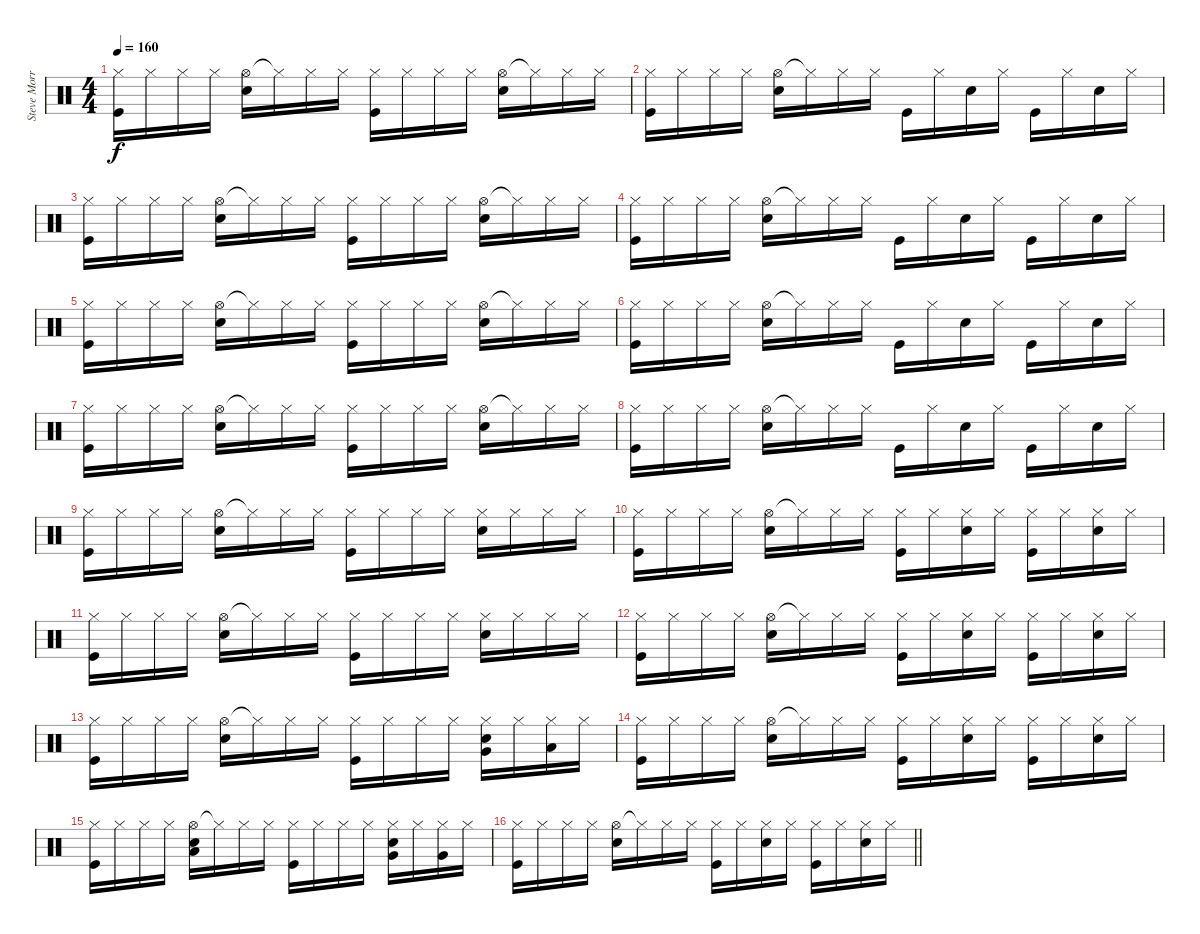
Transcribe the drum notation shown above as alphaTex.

\track ("Steve Morris" "Steve Morr") {instrument percussion}
\staff {score}
\articulation defaults
\ts (4 4)
\tempo 160
\clef neutral
\ks c
("Hi-Hat (closed)" "Kick (hit)").16{dy f} "Hi-Hat (closed)".16 "Hi-Hat (closed)".16 "Hi-Hat (closed)".16 ("Hi-Hat (open)" "Electric Snare (hit)").16 "Hi-Hat (closed)"{t}.16 "Hi-Hat (closed)".16 "Hi-Hat (closed)".16 ("Hi-Hat (closed)" "Kick (hit)").16 "Hi-Hat (closed)".16 "Hi-Hat (closed)".16 "Hi-Hat (closed)".16 ("Hi-Hat (open)" "Electric Snare (hit)").16 "Hi-Hat (closed)"{t}.16 "Hi-Hat (closed)".16 "Hi-Hat (closed)".16 |
("Hi-Hat (closed)" "Kick (hit)").16 "Hi-Hat (closed)".16 "Hi-Hat (closed)".16 "Hi-Hat (closed)".16 ("Hi-Hat (open)" "Electric Snare (hit)").16 "Hi-Hat (closed)"{t}.16 "Hi-Hat (closed)".16 "Hi-Hat (closed)".16 "Kick (hit)".16 "Hi-Hat (closed)".16 "Electric Snare (hit)".16 "Hi-Hat (closed)".16 "Kick (hit)".16 "Hi-Hat (closed)".16 "Electric Snare (hit)".16 "Hi-Hat (closed)".16 |
("Hi-Hat (closed)" "Kick (hit)").16 "Hi-Hat (closed)".16 "Hi-Hat (closed)".16 "Hi-Hat (closed)".16 ("Hi-Hat (open)" "Electric Snare (hit)").16 "Hi-Hat (closed)"{t}.16 "Hi-Hat (closed)".16 "Hi-Hat (closed)".16 ("Hi-Hat (closed)" "Kick (hit)").16 "Hi-Hat (closed)".16 "Hi-Hat (closed)".16 "Hi-Hat (closed)".16 ("Hi-Hat (open)" "Electric Snare (hit)").16 "Hi-Hat (closed)"{t}.16 "Hi-Hat (closed)".16 "Hi-Hat (closed)".16 |
("Hi-Hat (closed)" "Kick (hit)").16 "Hi-Hat (closed)".16 "Hi-Hat (closed)".16 "Hi-Hat (closed)".16 ("Hi-Hat (open)" "Electric Snare (hit)").16 "Hi-Hat (closed)"{t}.16 "Hi-Hat (closed)".16 "Hi-Hat (closed)".16 "Kick (hit)".16 "Hi-Hat (closed)".16 "Electric Snare (hit)".16 "Hi-Hat (closed)".16 "Kick (hit)".16 "Hi-Hat (closed)".16 "Electric Snare (hit)".16 "Hi-Hat (closed)".16 |
("Hi-Hat (closed)" "Kick (hit)").16 "Hi-Hat (closed)".16 "Hi-Hat (closed)".16 "Hi-Hat (closed)".16 ("Hi-Hat (open)" "Electric Snare (hit)").16 "Hi-Hat (closed)"{t}.16 "Hi-Hat (closed)".16 "Hi-Hat (closed)".16 ("Hi-Hat (closed)" "Kick (hit)").16 "Hi-Hat (closed)".16 "Hi-Hat (closed)".16 "Hi-Hat (closed)".16 ("Hi-Hat (open)" "Electric Snare (hit)").16 "Hi-Hat (closed)"{t}.16 "Hi-Hat (closed)".16 "Hi-Hat (closed)".16 |
("Hi-Hat (closed)" "Kick (hit)").16 "Hi-Hat (closed)".16 "Hi-Hat (closed)".16 "Hi-Hat (closed)".16 ("Hi-Hat (open)" "Electric Snare (hit)").16 "Hi-Hat (closed)"{t}.16 "Hi-Hat (closed)".16 "Hi-Hat (closed)".16 "Kick (hit)".16 "Hi-Hat (closed)".16 "Electric Snare (hit)".16 "Hi-Hat (closed)".16 "Kick (hit)".16 "Hi-Hat (closed)".16 "Electric Snare (hit)".16 "Hi-Hat (closed)".16 |
("Hi-Hat (closed)" "Kick (hit)").16 "Hi-Hat (closed)".16 "Hi-Hat (closed)".16 "Hi-Hat (closed)".16 ("Hi-Hat (open)" "Electric Snare (hit)").16 "Hi-Hat (closed)"{t}.16 "Hi-Hat (closed)".16 "Hi-Hat (closed)".16 ("Hi-Hat (closed)" "Kick (hit)").16 "Hi-Hat (closed)".16 "Hi-Hat (closed)".16 "Hi-Hat (closed)".16 ("Hi-Hat (open)" "Electric Snare (hit)").16 "Hi-Hat (closed)"{t}.16 "Hi-Hat (closed)".16 "Hi-Hat (closed)".16 |
("Hi-Hat (closed)" "Kick (hit)").16 "Hi-Hat (closed)".16 "Hi-Hat (closed)".16 "Hi-Hat (closed)".16 ("Hi-Hat (open)" "Electric Snare (hit)").16 "Hi-Hat (closed)"{t}.16 "Hi-Hat (closed)".16 "Hi-Hat (closed)".16 "Kick (hit)".16 "Hi-Hat (closed)".16 "Electric Snare (hit)".16 "Hi-Hat (closed)".16 "Kick (hit)".16 "Hi-Hat (closed)".16 "Electric Snare (hit)".16 "Hi-Hat (closed)".16 |
("Hi-Hat (closed)" "Kick (hit)").16 "Hi-Hat (closed)".16 "Hi-Hat (closed)".16 "Hi-Hat (closed)".16 ("Hi-Hat (open)" "Electric Snare (hit)").16 "Hi-Hat (closed)"{t}.16 "Hi-Hat (closed)".16 "Hi-Hat (closed)".16 ("Hi-Hat (closed)" "Kick (hit)").16 "Hi-Hat (closed)".16 "Hi-Hat (closed)".16 "Hi-Hat (closed)".16 ("Hi-Hat (closed)" "Electric Snare (hit)").16 "Hi-Hat (closed)".16 "Hi-Hat (closed)".16 "Hi-Hat (closed)".16 |
("Hi-Hat (closed)" "Kick (hit)").16 "Hi-Hat (closed)".16 "Hi-Hat (closed)".16 "Hi-Hat (closed)".16 ("Hi-Hat (open)" "Electric Snare (hit)").16 "Hi-Hat (closed)"{t}.16 "Hi-Hat (closed)".16 "Hi-Hat (closed)".16 ("Hi-Hat (closed)" "Kick (hit)").16 "Hi-Hat (closed)".16 ("Hi-Hat (closed)" "Electric Snare (hit)").16 "Hi-Hat (closed)".16 ("Hi-Hat (closed)" "Kick (hit)").16 "Hi-Hat (closed)".16 ("Hi-Hat (closed)" "Electric Snare (hit)").16 "Hi-Hat (closed)".16 |
("Hi-Hat (closed)" "Kick (hit)").16 "Hi-Hat (closed)".16 "Hi-Hat (closed)".16 "Hi-Hat (closed)".16 ("Hi-Hat (open)" "Electric Snare (hit)").16 "Hi-Hat (closed)"{t}.16 "Hi-Hat (closed)".16 "Hi-Hat (closed)".16 ("Hi-Hat (closed)" "Kick (hit)").16 "Hi-Hat (closed)".16 "Hi-Hat (closed)".16 "Hi-Hat (closed)".16 ("Hi-Hat (closed)" "Electric Snare (hit)").16 "Hi-Hat (closed)".16 "Hi-Hat (closed)".16 "Hi-Hat (closed)".16 |
("Hi-Hat (closed)" "Kick (hit)").16 "Hi-Hat (closed)".16 "Hi-Hat (closed)".16 "Hi-Hat (closed)".16 ("Hi-Hat (open)" "Electric Snare (hit)").16 "Hi-Hat (closed)"{t}.16 "Hi-Hat (closed)".16 "Hi-Hat (closed)".16 ("Hi-Hat (closed)" "Kick (hit)").16 "Hi-Hat (closed)".16 ("Hi-Hat (closed)" "Electric Snare (hit)").16 "Hi-Hat (closed)".16 ("Hi-Hat (closed)" "Kick (hit)").16 "Hi-Hat (closed)".16 ("Hi-Hat (closed)" "Electric Snare (hit)").16 "Hi-Hat (closed)".16 |
("Hi-Hat (closed)" "Kick (hit)").16 "Hi-Hat (closed)".16 "Hi-Hat (closed)".16 "Hi-Hat (closed)".16 ("Hi-Hat (open)" "Electric Snare (hit)").16 "Hi-Hat (closed)"{t}.16 "Hi-Hat (closed)".16 "Hi-Hat (closed)".16 ("Hi-Hat (closed)" "Kick (hit)").16 "Hi-Hat (closed)".16 "Hi-Hat (closed)".16 "Hi-Hat (closed)".16 ("Hi-Hat (closed)" "Very Low Tom (hit)" "Electric Snare (hit)").16 "Hi-Hat (closed)".16 ("Hi-Hat (closed)" "Low Tom (hit)").16 "Hi-Hat (closed)".16 |
("Hi-Hat (closed)" "Kick (hit)").16 "Hi-Hat (closed)".16 "Hi-Hat (closed)".16 "Hi-Hat (closed)".16 ("Hi-Hat (open)" "Electric Snare (hit)").16 "Hi-Hat (closed)"{t}.16 "Hi-Hat (closed)".16 "Hi-Hat (closed)".16 ("Hi-Hat (closed)" "Kick (hit)").16 "Hi-Hat (closed)".16 ("Hi-Hat (closed)" "Electric Snare (hit)").16 "Hi-Hat (closed)".16 ("Hi-Hat (closed)" "Kick (hit)").16 "Hi-Hat (closed)".16 ("Hi-Hat (closed)" "Electric Snare (hit)").16 "Hi-Hat (closed)".16 |
("Hi-Hat (closed)" "Kick (hit)").16 "Hi-Hat (closed)".16 "Hi-Hat (closed)".16 "Hi-Hat (closed)".16 ("Hi-Hat (open)" "Low Tom (hit)" "Electric Snare (hit)").16 "Hi-Hat (closed)"{t}.16 "Hi-Hat (closed)".16 "Hi-Hat (closed)".16 ("Hi-Hat (closed)" "Kick (hit)").16 "Hi-Hat (closed)".16 "Hi-Hat (closed)".16 "Hi-Hat (closed)".16 ("Hi-Hat (closed)" "Very Low Tom (hit)" "Electric Snare (hit)").16 "Hi-Hat (closed)".16 ("Hi-Hat (closed)" "Very Low Tom (hit)").16 "Hi-Hat (closed)".16 |
\barLineRight lightlight
("Hi-Hat (closed)" "Kick (hit)").16 "Hi-Hat (closed)".16 "Hi-Hat (closed)".16 "Hi-Hat (closed)".16 ("Hi-Hat (open)" "Electric Snare (hit)").16 "Hi-Hat (closed)"{t}.16 "Hi-Hat (closed)".16 "Hi-Hat (closed)".16 ("Hi-Hat (closed)" "Kick (hit)").16 "Hi-Hat (closed)".16 ("Hi-Hat (closed)" "Electric Snare (hit)").16 "Hi-Hat (closed)".16 ("Hi-Hat (closed)" "Kick (hit)").16 "Hi-Hat (closed)".16 ("Hi-Hat (closed)" "Electric Snare (hit)").16 "Hi-Hat (closed)".16
